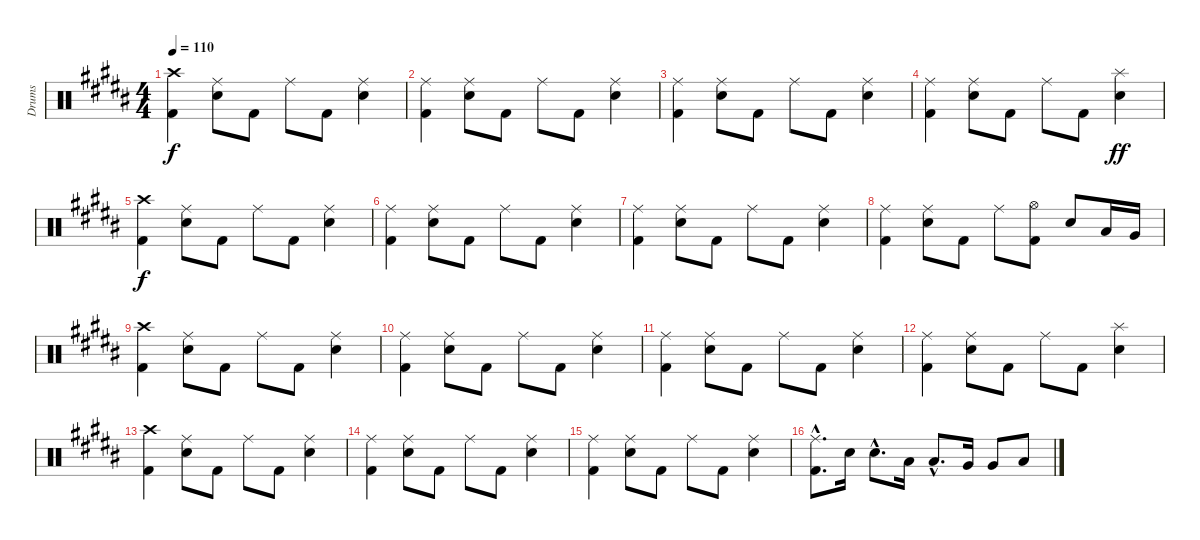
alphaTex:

\track ("Drums" "Drums") {instrument percussion}
\staff {score}
\articulation defaults
\ts (4 4)
\section ("" "")
\tempo 110
\clef neutral
\ks b
("Crash high (hit)" "Kick (hit) 2").4{dy f} ("Ride (middle)" "Electric Snare (hit)").8 "Kick (hit) 2".8 "Ride (middle)".8 "Kick (hit) 2".8 ("Ride (middle)" "Electric Snare (hit)").4 |
("Ride (middle)" "Kick (hit) 2").4 ("Ride (middle)" "Electric Snare (hit)").8 "Kick (hit) 2".8 "Ride (middle)".8 "Kick (hit) 2".8 ("Ride (middle)" "Electric Snare (hit)").4 |
("Ride (middle)" "Kick (hit) 2").4 ("Ride (middle)" "Electric Snare (hit)").8 "Kick (hit) 2".8 "Ride (middle)".8 "Kick (hit) 2".8 ("Ride (middle)" "Electric Snare (hit)").4 |
("Ride (middle)" "Kick (hit) 2").4 ("Ride (middle)" "Electric Snare (hit)").8 "Kick (hit) 2".8 "Ride (middle)".8 "Kick (hit) 2".8 ("Splash (hit)" "Electric Snare (hit)").4{dy ff} |
("Crash high (hit)" "Kick (hit) 2").4{dy f} ("Ride (middle)" "Electric Snare (hit)").8 "Kick (hit) 2".8 "Ride (middle)".8 "Kick (hit) 2".8 ("Ride (middle)" "Electric Snare (hit)").4 |
("Ride (middle)" "Kick (hit) 2").4 ("Ride (middle)" "Electric Snare (hit)").8 "Kick (hit) 2".8 "Ride (middle)".8 "Kick (hit) 2".8 ("Ride (middle)" "Electric Snare (hit)").4 |
("Ride (middle)" "Kick (hit) 2").4 ("Ride (middle)" "Electric Snare (hit)").8 "Kick (hit) 2".8 "Ride (middle)".8 "Kick (hit) 2".8 ("Ride (middle)" "Electric Snare (hit)").4 |
("Ride (middle)" "Kick (hit) 2").4 ("Ride (middle)" "Electric Snare (hit)").8 "Kick (hit) 2".8 "Ride (middle)".8 ("Hi-Hat (open)" "Kick (hit) 2").8 "Electric Snare (hit)".8 "Low Tom (hit)".16 "Very Low Tom (hit)".16 |
("Crash high (hit)" "Kick (hit) 2").4 ("Ride (middle)" "Electric Snare (hit)").8 "Kick (hit) 2".8 "Ride (middle)".8 "Kick (hit) 2".8 ("Ride (middle)" "Electric Snare (hit)").4 |
("Ride (middle)" "Kick (hit) 2").4 ("Ride (middle)" "Electric Snare (hit)").8 "Kick (hit) 2".8 "Ride (middle)".8 "Kick (hit) 2".8 ("Ride (middle)" "Electric Snare (hit)").4 |
("Ride (middle)" "Kick (hit) 2").4 ("Ride (middle)" "Electric Snare (hit)").8 "Kick (hit) 2".8 "Ride (middle)".8 "Kick (hit) 2".8 ("Ride (middle)" "Electric Snare (hit)").4 |
("Ride (middle)" "Kick (hit) 2").4 ("Ride (middle)" "Electric Snare (hit)").8 "Kick (hit) 2".8 "Ride (middle)".8 "Kick (hit) 2".8 ("Splash (hit)" "Electric Snare (hit)").4 |
("Crash high (hit)" "Kick (hit) 2").4 ("Ride (middle)" "Electric Snare (hit)").8 "Kick (hit) 2".8 "Ride (middle)".8 "Kick (hit) 2".8 ("Ride (middle)" "Electric Snare (hit)").4 |
("Ride (middle)" "Kick (hit) 2").4 ("Ride (middle)" "Electric Snare (hit)").8 "Kick (hit) 2".8 "Ride (middle)".8 "Kick (hit) 2".8 ("Ride (middle)" "Electric Snare (hit)").4 |
("Ride (middle)" "Kick (hit) 2").4 ("Ride (middle)" "Electric Snare (hit)").8 "Kick (hit) 2".8 "Ride (middle)".8 "Kick (hit) 2".8 ("Ride (middle)" "Electric Snare (hit)").4 |
("Ride (middle)"{hac} "Kick (hit) 2"{hac}).8{d} "Electric Snare (hit)".16 "Electric Snare (hit)"{hac}.8{d} "Low Tom (hit)".16 "Low Tom (hit)"{hac}.8{d} "Very Low Tom (hit)".16 "Very Low Tom (hit)".8 "Low Floor Tom (hit)".8
